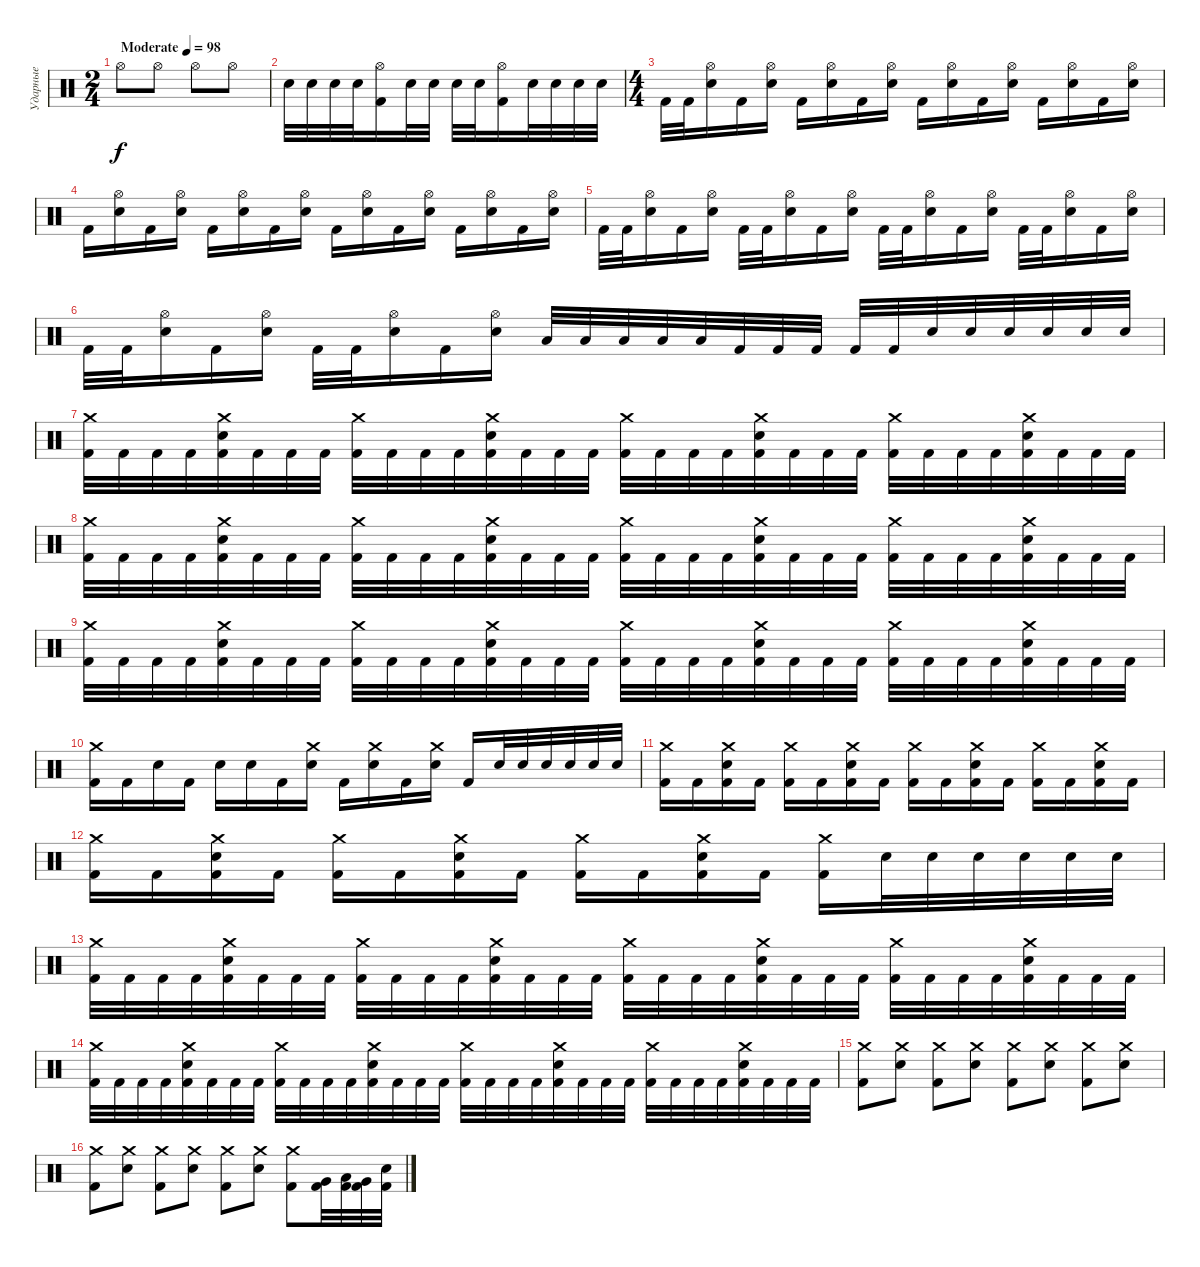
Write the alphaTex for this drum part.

\track ("Ударные" "Ударные") {instrument percussion}
\staff {score}
\articulation defaults
\ts (2 4)
\tempo (98 "Moderate")
\clef neutral
\ks c "Hi-Hat (open)".8{dy f} "Hi-Hat (open)".8 "Hi-Hat (open)".8 "Hi-Hat (open)".8
|
"Electric Snare (hit)".32 "Electric Snare (hit)".32 "Electric Snare (hit)".32 "Electric Snare (hit)".32 ("Hi-Hat (open)" "Kick (hit) 2").16 "Electric Snare (hit)".32 "Electric Snare (hit)".32 "Electric Snare (hit)".32 "Electric Snare (hit)".32 ("Hi-Hat (open)" "Kick (hit) 2").16 "Electric Snare (hit)".32 "Electric Snare (hit)".32 "Electric Snare (hit)".32 "Electric Snare (hit)".32 |
\ts (4 4)
"Kick (hit) 2".32 "Kick (hit) 2".32 ("Hi-Hat (open)" "Electric Snare (hit)").16 "Kick (hit) 2".16 ("Hi-Hat (open)" "Electric Snare (hit)").16 "Kick (hit) 2".16 ("Hi-Hat (open)" "Electric Snare (hit)").16 "Kick (hit) 2".16 ("Hi-Hat (open)" "Electric Snare (hit)").16 "Kick (hit) 2".16 ("Hi-Hat (open)" "Electric Snare (hit)").16 "Kick (hit) 2".16 ("Hi-Hat (open)" "Electric Snare (hit)").16 "Kick (hit) 2".16 ("Hi-Hat (open)" "Electric Snare (hit)").16 "Kick (hit) 2".16 ("Hi-Hat (open)" "Electric Snare (hit)").16 |
"Kick (hit) 2".16 ("Hi-Hat (open)" "Electric Snare (hit)").16 "Kick (hit) 2".16 ("Hi-Hat (open)" "Electric Snare (hit)").16 "Kick (hit) 2".16 ("Hi-Hat (open)" "Electric Snare (hit)").16 "Kick (hit) 2".16 ("Hi-Hat (open)" "Electric Snare (hit)").16 "Kick (hit) 2".16 ("Hi-Hat (open)" "Electric Snare (hit)").16 "Kick (hit) 2".16 ("Hi-Hat (open)" "Electric Snare (hit)").16 "Kick (hit) 2".16 ("Hi-Hat (open)" "Electric Snare (hit)").16 "Kick (hit) 2".16 ("Hi-Hat (open)" "Electric Snare (hit)").16 |
"Kick (hit) 2".32 "Kick (hit) 2".32 ("Hi-Hat (open)" "Electric Snare (hit)").16 "Kick (hit) 2".16 ("Hi-Hat (open)" "Electric Snare (hit)").16 "Kick (hit) 2".32 "Kick (hit) 2".32 ("Hi-Hat (open)" "Electric Snare (hit)").16 "Kick (hit) 2".16 ("Hi-Hat (open)" "Electric Snare (hit)").16 "Kick (hit) 2".32 "Kick (hit) 2".32 ("Hi-Hat (open)" "Electric Snare (hit)").16 "Kick (hit) 2".16 ("Hi-Hat (open)" "Electric Snare (hit)").16 "Kick (hit) 2".32 "Kick (hit) 2".32 ("Hi-Hat (open)" "Electric Snare (hit)").16 "Kick (hit) 2".16 ("Hi-Hat (open)" "Electric Snare (hit)").16 |
"Kick (hit) 2".32 "Kick (hit) 2".32 ("Hi-Hat (open)" "Electric Snare (hit)").16 "Kick (hit) 2".16 ("Hi-Hat (open)" "Electric Snare (hit)").16 "Kick (hit) 2".32 "Kick (hit) 2".32 ("Hi-Hat (open)" "Electric Snare (hit)").16 "Kick (hit) 2".16 ("Hi-Hat (open)" "Electric Snare (hit)").16 "Low Tom (hit)".32 "Low Tom (hit)".32 "Low Tom (hit)".32 "Low Tom (hit)".32 "Low Tom (hit)".32 "Kick (hit) 2".32 "Kick (hit) 2".32 "Kick (hit) 2".32 "Kick (hit) 2".32 "Kick (hit) 2".32 "Electric Snare (hit)".32 "Electric Snare (hit)".32 "Electric Snare (hit)".32 "Electric Snare (hit)".32 "Electric Snare (hit)".32 "Electric Snare (hit)".32 |
("Crash medium (hit)" "Kick (hit) 2").32 "Kick (hit) 2".32 "Kick (hit) 2".32 "Kick (hit) 2".32 ("Crash medium (hit)" "Electric Snare (hit)" "Kick (hit) 2").32 "Kick (hit) 2".32 "Kick (hit) 2".32 "Kick (hit) 2".32 ("Crash medium (hit)" "Kick (hit) 2").32 "Kick (hit) 2".32 "Kick (hit) 2".32 "Kick (hit) 2".32 ("Crash medium (hit)" "Electric Snare (hit)" "Kick (hit) 2").32 "Kick (hit) 2".32 "Kick (hit) 2".32 "Kick (hit) 2".32 ("Crash medium (hit)" "Kick (hit) 2").32 "Kick (hit) 2".32 "Kick (hit) 2".32 "Kick (hit) 2".32 ("Crash medium (hit)" "Electric Snare (hit)" "Kick (hit) 2").32 "Kick (hit) 2".32 "Kick (hit) 2".32 "Kick (hit) 2".32 ("Crash medium (hit)" "Kick (hit) 2").32 "Kick (hit) 2".32 "Kick (hit) 2".32 "Kick (hit) 2".32 ("Crash medium (hit)" "Electric Snare (hit)" "Kick (hit) 2").32 "Kick (hit) 2".32 "Kick (hit) 2".32 "Kick (hit) 2".32 |
("Crash medium (hit)" "Kick (hit) 2").32 "Kick (hit) 2".32 "Kick (hit) 2".32 "Kick (hit) 2".32 ("Crash medium (hit)" "Electric Snare (hit)" "Kick (hit) 2").32 "Kick (hit) 2".32 "Kick (hit) 2".32 "Kick (hit) 2".32 ("Crash medium (hit)" "Kick (hit) 2").32 "Kick (hit) 2".32 "Kick (hit) 2".32 "Kick (hit) 2".32 ("Crash medium (hit)" "Electric Snare (hit)" "Kick (hit) 2").32 "Kick (hit) 2".32 "Kick (hit) 2".32 "Kick (hit) 2".32 ("Crash medium (hit)" "Kick (hit) 2").32 "Kick (hit) 2".32 "Kick (hit) 2".32 "Kick (hit) 2".32 ("Crash medium (hit)" "Electric Snare (hit)" "Kick (hit) 2").32 "Kick (hit) 2".32 "Kick (hit) 2".32 "Kick (hit) 2".32 ("Crash medium (hit)" "Kick (hit) 2").32 "Kick (hit) 2".32 "Kick (hit) 2".32 "Kick (hit) 2".32 ("Crash medium (hit)" "Electric Snare (hit)" "Kick (hit) 2").32 "Kick (hit) 2".32 "Kick (hit) 2".32 "Kick (hit) 2".32 |
("Crash medium (hit)" "Kick (hit) 2").32 "Kick (hit) 2".32 "Kick (hit) 2".32 "Kick (hit) 2".32 ("Crash medium (hit)" "Electric Snare (hit)" "Kick (hit) 2").32 "Kick (hit) 2".32 "Kick (hit) 2".32 "Kick (hit) 2".32 ("Crash medium (hit)" "Kick (hit) 2").32 "Kick (hit) 2".32 "Kick (hit) 2".32 "Kick (hit) 2".32 ("Crash medium (hit)" "Electric Snare (hit)" "Kick (hit) 2").32 "Kick (hit) 2".32 "Kick (hit) 2".32 "Kick (hit) 2".32 ("Crash medium (hit)" "Kick (hit) 2").32 "Kick (hit) 2".32 "Kick (hit) 2".32 "Kick (hit) 2".32 ("Crash medium (hit)" "Electric Snare (hit)" "Kick (hit) 2").32 "Kick (hit) 2".32 "Kick (hit) 2".32 "Kick (hit) 2".32 ("Crash medium (hit)" "Kick (hit) 2").32 "Kick (hit) 2".32 "Kick (hit) 2".32 "Kick (hit) 2".32 ("Crash medium (hit)" "Electric Snare (hit)" "Kick (hit) 2").32 "Kick (hit) 2".32 "Kick (hit) 2".32 "Kick (hit) 2".32 |
("Crash medium (hit)" "Kick (hit) 2").16 "Kick (hit) 2".16 "Electric Snare (hit)".16 "Kick (hit) 2".16 "Electric Snare (hit)".16 "Electric Snare (hit)".16 "Kick (hit) 2".16 ("Crash medium (hit)" "Electric Snare (hit)").16 "Kick (hit) 2".16 ("Crash medium (hit)" "Electric Snare (hit)").16 "Kick (hit) 2".16 ("Crash medium (hit)" "Electric Snare (hit)").16 "Kick (hit) 2".16 "Electric Snare (hit)".32 "Electric Snare (hit)".32 "Electric Snare (hit)".32 "Electric Snare (hit)".32 "Electric Snare (hit)".32 "Electric Snare (hit)".32 |
("Crash medium (hit)" "Kick (hit) 2").16 "Kick (hit) 2".16 ("Crash medium (hit)" "Electric Snare (hit)" "Kick (hit) 2").16 "Kick (hit) 2".16 ("Crash medium (hit)" "Kick (hit) 2").16 "Kick (hit) 2".16 ("Crash medium (hit)" "Electric Snare (hit)" "Kick (hit) 2").16 "Kick (hit) 2".16 ("Crash medium (hit)" "Kick (hit) 2").16 "Kick (hit) 2".16 ("Crash medium (hit)" "Electric Snare (hit)" "Kick (hit) 2").16 "Kick (hit) 2".16 ("Crash medium (hit)" "Kick (hit) 2").16 "Kick (hit) 2".16 ("Crash medium (hit)" "Electric Snare (hit)" "Kick (hit) 2").16 "Kick (hit) 2".16 |
("Crash medium (hit)" "Kick (hit) 2").16 "Kick (hit) 2".16 ("Crash medium (hit)" "Electric Snare (hit)" "Kick (hit) 2").16 "Kick (hit) 2".16 ("Crash medium (hit)" "Kick (hit) 2").16 "Kick (hit) 2".16 ("Crash medium (hit)" "Electric Snare (hit)" "Kick (hit) 2").16 "Kick (hit) 2".16 ("Crash medium (hit)" "Kick (hit) 2").16 "Kick (hit) 2".16 ("Crash medium (hit)" "Electric Snare (hit)" "Kick (hit) 2").16 "Kick (hit) 2".16 ("Crash medium (hit)" "Kick (hit) 2").16 "Electric Snare (hit)".32 "Electric Snare (hit)".32 "Electric Snare (hit)".32 "Electric Snare (hit)".32 "Electric Snare (hit)".32 "Electric Snare (hit)".32 |
("Crash medium (hit)" "Kick (hit) 2").32 "Kick (hit) 2".32 "Kick (hit) 2".32 "Kick (hit) 2".32 ("Crash medium (hit)" "Electric Snare (hit)" "Kick (hit) 2").32 "Kick (hit) 2".32 "Kick (hit) 2".32 "Kick (hit) 2".32 ("Crash medium (hit)" "Kick (hit) 2").32 "Kick (hit) 2".32 "Kick (hit) 2".32 "Kick (hit) 2".32 ("Crash medium (hit)" "Electric Snare (hit)" "Kick (hit) 2").32 "Kick (hit) 2".32 "Kick (hit) 2".32 "Kick (hit) 2".32 ("Crash medium (hit)" "Kick (hit) 2").32 "Kick (hit) 2".32 "Kick (hit) 2".32 "Kick (hit) 2".32 ("Crash medium (hit)" "Electric Snare (hit)" "Kick (hit) 2").32 "Kick (hit) 2".32 "Kick (hit) 2".32 "Kick (hit) 2".32 ("Crash medium (hit)" "Kick (hit) 2").32 "Kick (hit) 2".32 "Kick (hit) 2".32 "Kick (hit) 2".32 ("Crash medium (hit)" "Electric Snare (hit)" "Kick (hit) 2").32 "Kick (hit) 2".32 "Kick (hit) 2".32 "Kick (hit) 2".32 |
("Crash medium (hit)" "Kick (hit) 2").32 "Kick (hit) 2".32 "Kick (hit) 2".32 "Kick (hit) 2".32 ("Crash medium (hit)" "Electric Snare (hit)" "Kick (hit) 2").32 "Kick (hit) 2".32 "Kick (hit) 2".32 "Kick (hit) 2".32 ("Crash medium (hit)" "Kick (hit) 2").32 "Kick (hit) 2".32 "Kick (hit) 2".32 "Kick (hit) 2".32 ("Crash medium (hit)" "Electric Snare (hit)" "Kick (hit) 2").32 "Kick (hit) 2".32 "Kick (hit) 2".32 "Kick (hit) 2".32 ("Crash medium (hit)" "Kick (hit) 2").32 "Kick (hit) 2".32 "Kick (hit) 2".32 "Kick (hit) 2".32 ("Crash medium (hit)" "Electric Snare (hit)" "Kick (hit) 2").32 "Kick (hit) 2".32 "Kick (hit) 2".32 "Kick (hit) 2".32 ("Crash medium (hit)" "Kick (hit) 2").32 "Kick (hit) 2".32 "Kick (hit) 2".32 "Kick (hit) 2".32 ("Crash medium (hit)" "Electric Snare (hit)" "Kick (hit) 2").32 "Kick (hit) 2".32 "Kick (hit) 2".32 "Kick (hit) 2".32 |
("Crash medium (hit)" "Kick (hit) 2").8 ("Crash medium (hit)" "Electric Snare (hit)").8 ("Crash medium (hit)" "Kick (hit) 2").8 ("Crash medium (hit)" "Electric Snare (hit)").8 ("Crash medium (hit)" "Kick (hit) 2").8 ("Crash medium (hit)" "Electric Snare (hit)").8 ("Crash medium (hit)" "Kick (hit) 2").8 ("Crash medium (hit)" "Electric Snare (hit)").8 |
("Crash medium (hit)" "Kick (hit) 2").8 ("Crash medium (hit)" "Electric Snare (hit)").8 ("Crash medium (hit)" "Kick (hit) 2").8 ("Crash medium (hit)" "Electric Snare (hit)").8 ("Crash medium (hit)" "Kick (hit) 2").8 ("Crash medium (hit)" "Electric Snare (hit)").8 ("Crash medium (hit)" "Kick (hit) 2").8 ("Very Low Tom (hit)" "Kick (hit) 2").32 ("Low Tom (hit)" "Kick (hit) 2").32 ("Very Low Tom (hit)" "Kick (hit) 2").32 ("Electric Snare (hit)" "Kick (hit) 2").32
